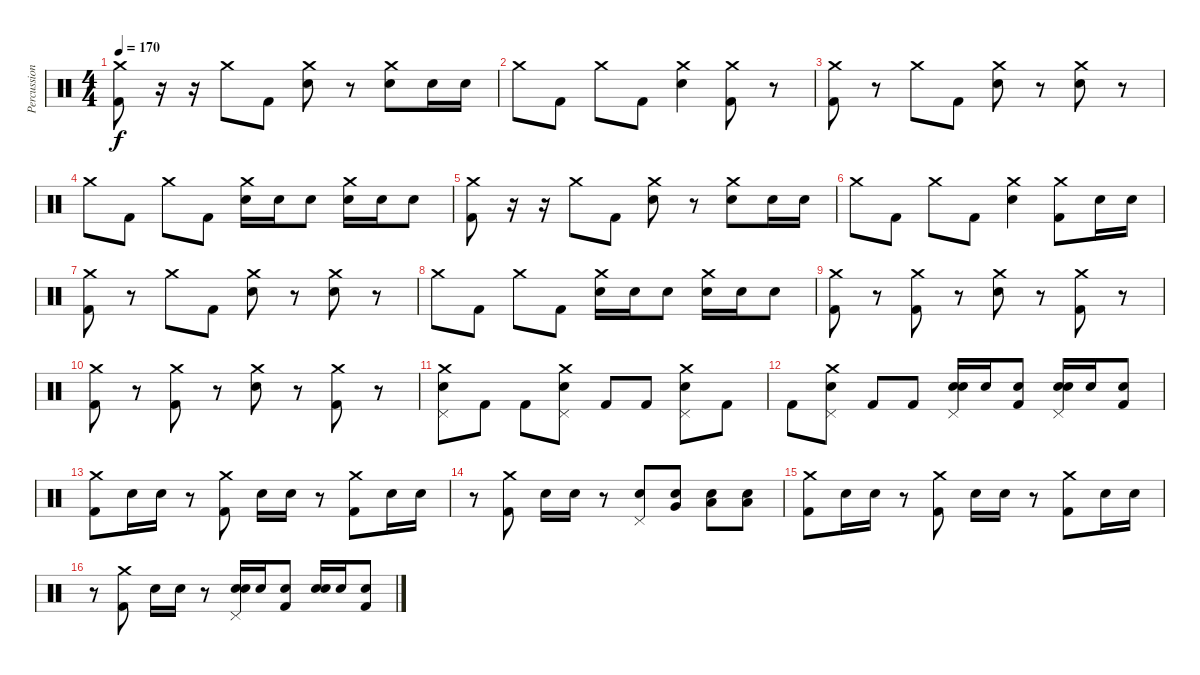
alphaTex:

\track ("Percussion" "Percussion") {instrument percussion}
\staff {score}
\articulation defaults
\ts (4 4)
\tempo 170
\clef neutral
\ks c
("Crash medium (hit)" "Kick (hit) 2").8{dy f} r.16 r.16 "Crash medium (hit)".8 "Kick (hit) 2".8 ("Crash medium (hit)" "Electric Snare (hit)").8 r.8 ("Crash medium (hit)" "Electric Snare (hit)").8 "Electric Snare (hit)".16 "Electric Snare (hit)".16 |
"Crash medium (hit)".8 "Kick (hit) 2".8 "Crash medium (hit)".8 "Kick (hit) 2".8 ("Crash medium (hit)" "Electric Snare (hit)").4 ("Crash medium (hit)" "Kick (hit) 2").8 r.8 |
("Crash medium (hit)" "Kick (hit) 2").8 r.8 "Crash medium (hit)".8 "Kick (hit) 2".8 ("Crash medium (hit)" "Electric Snare (hit)").8 r.8 ("Crash medium (hit)" "Electric Snare (hit)").8 r.8 |
"Crash medium (hit)".8 "Kick (hit) 2".8 "Crash medium (hit)".8 "Kick (hit) 2".8 ("Crash medium (hit)" "Electric Snare (hit)").16 "Electric Snare (hit)".16 "Electric Snare (hit)".8 ("Crash medium (hit)" "Electric Snare (hit)").16 "Electric Snare (hit)".16 "Electric Snare (hit)".8 |
("Crash medium (hit)" "Kick (hit) 2").8 r.16 r.16 "Crash medium (hit)".8 "Kick (hit) 2".8 ("Crash medium (hit)" "Electric Snare (hit)").8 r.8 ("Crash medium (hit)" "Electric Snare (hit)").8 "Electric Snare (hit)".16 "Electric Snare (hit)".16 |
"Crash medium (hit)".8 "Kick (hit) 2".8 "Crash medium (hit)".8 "Kick (hit) 2".8 ("Crash medium (hit)" "Electric Snare (hit)").4 ("Crash medium (hit)" "Kick (hit) 2").8 "Electric Snare (hit)".16 "Electric Snare (hit)".16 |
("Crash medium (hit)" "Kick (hit) 2").8 r.8 "Crash medium (hit)".8 "Kick (hit) 2".8 ("Crash medium (hit)" "Electric Snare (hit)").8 r.8 ("Crash medium (hit)" "Electric Snare (hit)").8 r.8 |
"Crash medium (hit)".8 "Kick (hit) 2".8 "Crash medium (hit)".8 "Kick (hit) 2".8 ("Crash medium (hit)" "Electric Snare (hit)").16 "Electric Snare (hit)".16 "Electric Snare (hit)".8 ("Crash medium (hit)" "Electric Snare (hit)").16 "Electric Snare (hit)".16 "Electric Snare (hit)".8 |
("Crash medium (hit)" "Kick (hit) 2").8 r.8 ("Crash medium (hit)" "Kick (hit) 2").8 r.8 ("Crash medium (hit)" "Electric Snare (hit)").8 r.8 ("Crash medium (hit)" "Kick (hit) 2").8 r.8 |
("Crash medium (hit)" "Kick (hit) 2").8 r.8 ("Crash medium (hit)" "Kick (hit) 2").8 r.8 ("Crash medium (hit)" "Electric Snare (hit)").8 r.8 ("Crash medium (hit)" "Kick (hit) 2").8 r.8 |
("Crash medium (hit)" "Electric Snare (hit)" "Pedal Hi-Hat (hit)").8 "Kick (hit) 2".8 "Kick (hit) 2".8 ("Crash medium (hit)" "Electric Snare (hit)" "Pedal Hi-Hat (hit)").8 "Kick (hit) 2".8 "Kick (hit) 2".8 ("Crash medium (hit)" "Electric Snare (hit)" "Pedal Hi-Hat (hit)").8 "Kick (hit) 2".8 |
"Kick (hit) 2".8 ("Crash medium (hit)" "Electric Snare (hit)" "Pedal Hi-Hat (hit)").8 "Kick (hit) 2".8 "Kick (hit) 2".8 ("Electric Snare (hit)" "Electric Snare (hit)" "Pedal Hi-Hat (hit)").16 "Electric Snare (hit)".16 ("Electric Snare (hit)" "Kick (hit) 2").8 ("Electric Snare (hit)" "Electric Snare (hit)" "Pedal Hi-Hat (hit)").16 "Electric Snare (hit)".16 ("Electric Snare (hit)" "Kick (hit) 2").8 |
("Crash medium (hit)" "Kick (hit) 2").8 "Electric Snare (hit)".16 "Electric Snare (hit)".16 r.8 ("Crash medium (hit)" "Kick (hit) 2").8 "Electric Snare (hit)".16 "Electric Snare (hit)".16 r.8 ("Crash medium (hit)" "Kick (hit) 2").8 "Electric Snare (hit)".16 "Electric Snare (hit)".16 |
r.8 ("Crash medium (hit)" "Kick (hit) 2").8 "Electric Snare (hit)".16 "Electric Snare (hit)".16 r.8 ("Electric Snare (hit)" "Pedal Hi-Hat (hit)").8 ("Very Low Tom (hit)" "Electric Snare (hit)").8 ("Low Floor Tom (hit)" "Electric Snare (hit)").8 ("Low Floor Tom (hit)" "Electric Snare (hit)").8 |
("Crash medium (hit)" "Kick (hit) 2").8 "Electric Snare (hit)".16 "Electric Snare (hit)".16 r.8 ("Crash medium (hit)" "Kick (hit) 2").8 "Electric Snare (hit)".16 "Electric Snare (hit)".16 r.8 ("Crash medium (hit)" "Kick (hit) 2").8 "Electric Snare (hit)".16 "Electric Snare (hit)".16 |
r.8 ("Crash medium (hit)" "Kick (hit) 2").8 "Electric Snare (hit)".16 "Electric Snare (hit)".16 r.8 ("Electric Snare (hit)" "Electric Snare (hit)" "Pedal Hi-Hat (hit)").16 "Electric Snare (hit)".16 ("Electric Snare (hit)" "Kick (hit) 2").8 ("Electric Snare (hit)" "Electric Snare (hit)").16 "Electric Snare (hit)".16 ("Electric Snare (hit)" "Kick (hit) 2").8
